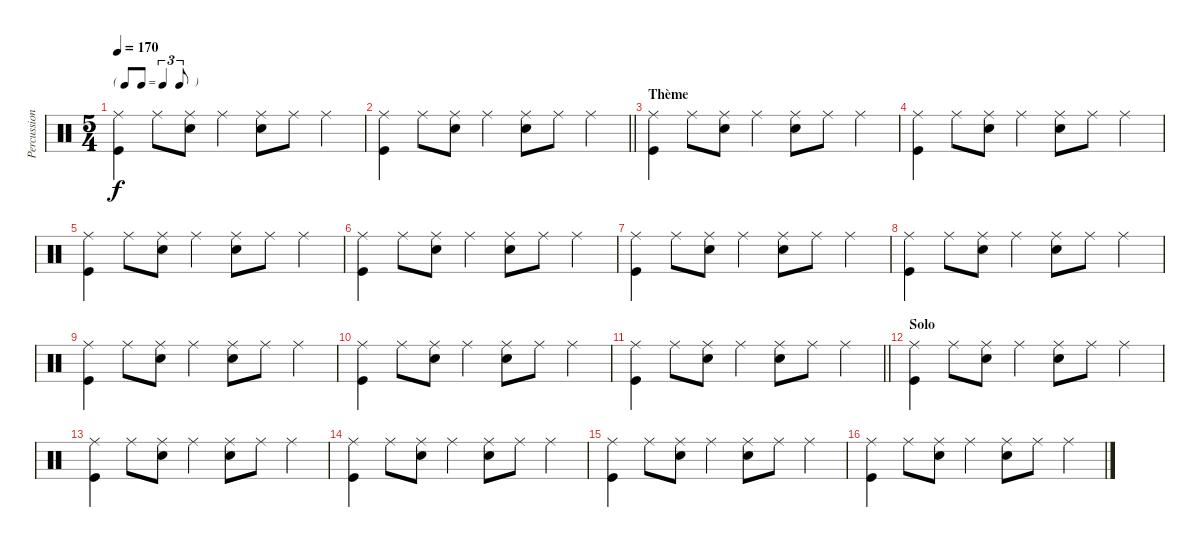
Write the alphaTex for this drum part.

\track ("Percussions" "Percussion") {instrument percussion}
\staff {score}
\articulation defaults
\ts (5 4)
\tf triplet8th
\tempo 170
\clef neutral
\ks c
("Ride (middle)" "Kick (hit)").4{dy f} "Ride (middle)".8 ("Ride (middle)" "Snare (hit) 2").8 "Ride (middle)".4 ("Ride (middle)" "Snare (hit) 2").8 "Ride (middle)".8 "Ride (middle)".4 |
\barLineRight lightlight
("Ride (middle)" "Kick (hit)").4 "Ride (middle)".8 ("Ride (middle)" "Snare (hit) 2").8 "Ride (middle)".4 ("Ride (middle)" "Snare (hit) 2").8 "Ride (middle)".8 "Ride (middle)".4 |
\section ("" "Thème")
("Ride (middle)" "Kick (hit)").4 "Ride (middle)".8 ("Ride (middle)" "Snare (hit) 2").8 "Ride (middle)".4 ("Ride (middle)" "Snare (hit) 2").8 "Ride (middle)".8 "Ride (middle)".4 |
("Ride (middle)" "Kick (hit)").4 "Ride (middle)".8 ("Ride (middle)" "Snare (hit) 2").8 "Ride (middle)".4 ("Ride (middle)" "Snare (hit) 2").8 "Ride (middle)".8 "Ride (middle)".4 |
("Ride (middle)" "Kick (hit)").4 "Ride (middle)".8 ("Ride (middle)" "Snare (hit) 2").8 "Ride (middle)".4 ("Ride (middle)" "Snare (hit) 2").8 "Ride (middle)".8 "Ride (middle)".4 |
("Ride (middle)" "Kick (hit)").4 "Ride (middle)".8 ("Ride (middle)" "Snare (hit) 2").8 "Ride (middle)".4 ("Ride (middle)" "Snare (hit) 2").8 "Ride (middle)".8 "Ride (middle)".4 |
("Ride (middle)" "Kick (hit)").4 "Ride (middle)".8 ("Ride (middle)" "Snare (hit) 2").8 "Ride (middle)".4 ("Ride (middle)" "Snare (hit) 2").8 "Ride (middle)".8 "Ride (middle)".4 |
("Ride (middle)" "Kick (hit)").4 "Ride (middle)".8 ("Ride (middle)" "Snare (hit) 2").8 "Ride (middle)".4 ("Ride (middle)" "Snare (hit) 2").8 "Ride (middle)".8 "Ride (middle)".4 |
("Ride (middle)" "Kick (hit)").4 "Ride (middle)".8 ("Ride (middle)" "Snare (hit) 2").8 "Ride (middle)".4 ("Ride (middle)" "Snare (hit) 2").8 "Ride (middle)".8 "Ride (middle)".4 |
("Ride (middle)" "Kick (hit)").4 "Ride (middle)".8 ("Ride (middle)" "Snare (hit) 2").8 "Ride (middle)".4 ("Ride (middle)" "Snare (hit) 2").8 "Ride (middle)".8 "Ride (middle)".4 |
\barLineRight lightlight
("Ride (middle)" "Kick (hit)").4 "Ride (middle)".8 ("Ride (middle)" "Snare (hit) 2").8 "Ride (middle)".4 ("Ride (middle)" "Snare (hit) 2").8 "Ride (middle)".8 "Ride (middle)".4 |
\section ("" "Solo")
("Ride (middle)" "Kick (hit)").4 "Ride (middle)".8 ("Ride (middle)" "Snare (hit) 2").8 "Ride (middle)".4 ("Ride (middle)" "Snare (hit) 2").8 "Ride (middle)".8 "Ride (middle)".4 |
("Ride (middle)" "Kick (hit)").4 "Ride (middle)".8 ("Ride (middle)" "Snare (hit) 2").8 "Ride (middle)".4 ("Ride (middle)" "Snare (hit) 2").8 "Ride (middle)".8 "Ride (middle)".4 |
("Ride (middle)" "Kick (hit)").4 "Ride (middle)".8 ("Ride (middle)" "Snare (hit) 2").8 "Ride (middle)".4 ("Ride (middle)" "Snare (hit) 2").8 "Ride (middle)".8 "Ride (middle)".4 |
("Ride (middle)" "Kick (hit)").4 "Ride (middle)".8 ("Ride (middle)" "Snare (hit) 2").8 "Ride (middle)".4 ("Ride (middle)" "Snare (hit) 2").8 "Ride (middle)".8 "Ride (middle)".4 |
("Ride (middle)" "Kick (hit)").4 "Ride (middle)".8 ("Ride (middle)" "Snare (hit) 2").8 "Ride (middle)".4 ("Ride (middle)" "Snare (hit) 2").8 "Ride (middle)".8 "Ride (middle)".4
